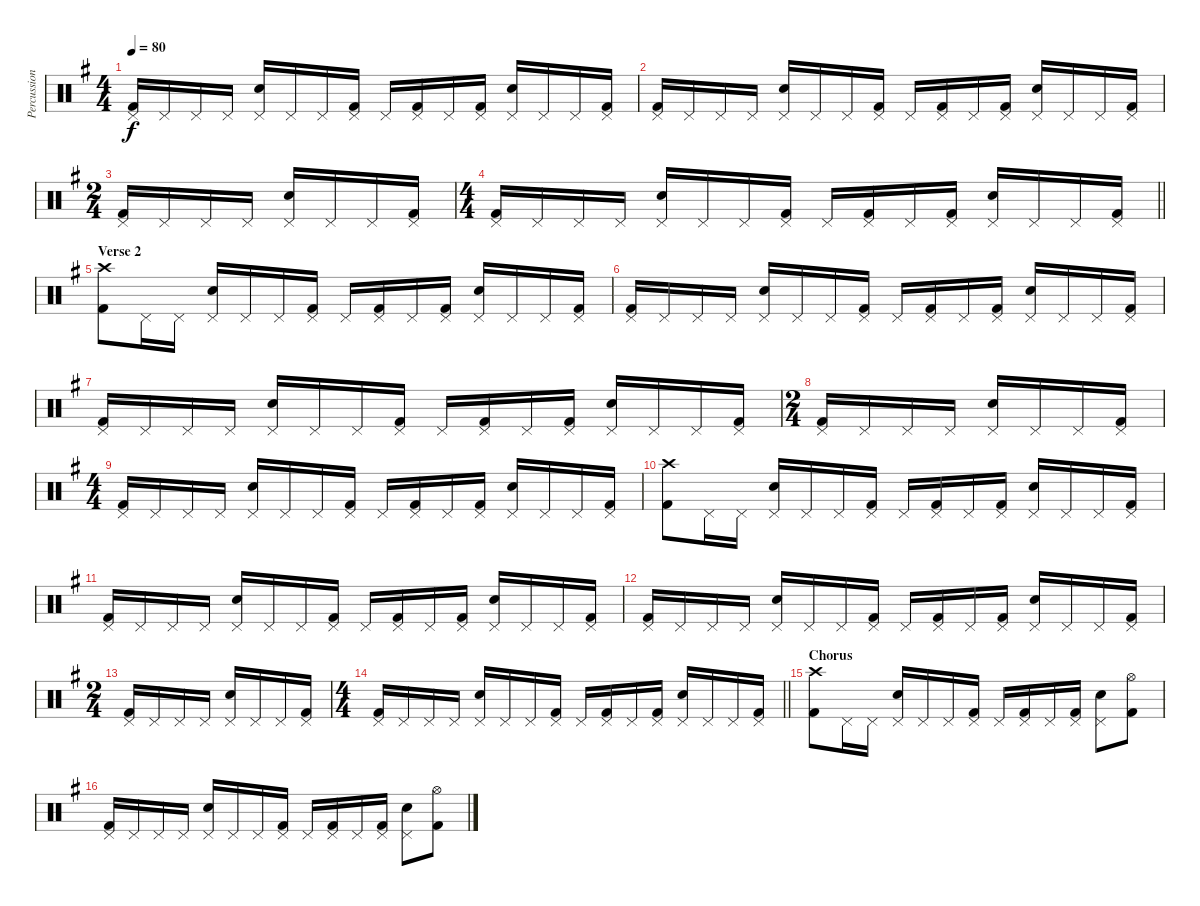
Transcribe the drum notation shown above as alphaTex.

\track ("Percussion" "Percussion") {instrument percussion}
\staff {score}
\articulation defaults
\ts (4 4)
\tempo 80
\clef neutral
\ks g
("Pedal Hi-Hat (hit)" "Kick (hit) 2").16{dy f} "Pedal Hi-Hat (hit)".16 "Pedal Hi-Hat (hit)".16 "Pedal Hi-Hat (hit)".16 ("Pedal Hi-Hat (hit)" "Electric Snare (hit)").16 "Pedal Hi-Hat (hit)".16 "Pedal Hi-Hat (hit)".16 ("Pedal Hi-Hat (hit)" "Kick (hit) 2").16 "Pedal Hi-Hat (hit)".16 ("Pedal Hi-Hat (hit)" "Kick (hit) 2").16 "Pedal Hi-Hat (hit)".16 ("Pedal Hi-Hat (hit)" "Kick (hit) 2").16 ("Pedal Hi-Hat (hit)" "Electric Snare (hit)").16 "Pedal Hi-Hat (hit)".16 "Pedal Hi-Hat (hit)".16 ("Pedal Hi-Hat (hit)" "Kick (hit) 2").16 |
("Pedal Hi-Hat (hit)" "Kick (hit) 2").16 "Pedal Hi-Hat (hit)".16 "Pedal Hi-Hat (hit)".16 "Pedal Hi-Hat (hit)".16 ("Pedal Hi-Hat (hit)" "Electric Snare (hit)").16 "Pedal Hi-Hat (hit)".16 "Pedal Hi-Hat (hit)".16 ("Pedal Hi-Hat (hit)" "Kick (hit) 2").16 "Pedal Hi-Hat (hit)".16 ("Pedal Hi-Hat (hit)" "Kick (hit) 2").16 "Pedal Hi-Hat (hit)".16 ("Pedal Hi-Hat (hit)" "Kick (hit) 2").16 ("Pedal Hi-Hat (hit)" "Electric Snare (hit)").16 "Pedal Hi-Hat (hit)".16 "Pedal Hi-Hat (hit)".16 ("Pedal Hi-Hat (hit)" "Kick (hit) 2").16 |
\ts (2 4)
("Pedal Hi-Hat (hit)" "Kick (hit) 2").16 "Pedal Hi-Hat (hit)".16 "Pedal Hi-Hat (hit)".16 "Pedal Hi-Hat (hit)".16 ("Pedal Hi-Hat (hit)" "Electric Snare (hit)").16 "Pedal Hi-Hat (hit)".16 "Pedal Hi-Hat (hit)".16 ("Pedal Hi-Hat (hit)" "Kick (hit) 2").16 |
\ts (4 4)
\barLineRight lightlight
("Pedal Hi-Hat (hit)" "Kick (hit) 2").16 "Pedal Hi-Hat (hit)".16 "Pedal Hi-Hat (hit)".16 "Pedal Hi-Hat (hit)".16 ("Pedal Hi-Hat (hit)" "Electric Snare (hit)").16 "Pedal Hi-Hat (hit)".16 "Pedal Hi-Hat (hit)".16 ("Pedal Hi-Hat (hit)" "Kick (hit) 2").16 "Pedal Hi-Hat (hit)".16 ("Pedal Hi-Hat (hit)" "Kick (hit) 2").16 "Pedal Hi-Hat (hit)".16 ("Pedal Hi-Hat (hit)" "Kick (hit) 2").16 ("Pedal Hi-Hat (hit)" "Electric Snare (hit)").16 "Pedal Hi-Hat (hit)".16 "Pedal Hi-Hat (hit)".16 ("Pedal Hi-Hat (hit)" "Kick (hit) 2").16 |
\section ("" "Verse 2")
("Crash high (hit)" "Kick (hit) 2").8 "Pedal Hi-Hat (hit)".16 "Pedal Hi-Hat (hit)".16 ("Pedal Hi-Hat (hit)" "Electric Snare (hit)").16 "Pedal Hi-Hat (hit)".16 "Pedal Hi-Hat (hit)".16 ("Pedal Hi-Hat (hit)" "Kick (hit) 2").16 "Pedal Hi-Hat (hit)".16 ("Pedal Hi-Hat (hit)" "Kick (hit) 2").16 "Pedal Hi-Hat (hit)".16 ("Pedal Hi-Hat (hit)" "Kick (hit) 2").16 ("Pedal Hi-Hat (hit)" "Electric Snare (hit)").16 "Pedal Hi-Hat (hit)".16 "Pedal Hi-Hat (hit)".16 ("Pedal Hi-Hat (hit)" "Kick (hit) 2").16 |
("Pedal Hi-Hat (hit)" "Kick (hit) 2").16 "Pedal Hi-Hat (hit)".16 "Pedal Hi-Hat (hit)".16 "Pedal Hi-Hat (hit)".16 ("Pedal Hi-Hat (hit)" "Electric Snare (hit)").16 "Pedal Hi-Hat (hit)".16 "Pedal Hi-Hat (hit)".16 ("Pedal Hi-Hat (hit)" "Kick (hit) 2").16 "Pedal Hi-Hat (hit)".16 ("Pedal Hi-Hat (hit)" "Kick (hit) 2").16 "Pedal Hi-Hat (hit)".16 ("Pedal Hi-Hat (hit)" "Kick (hit) 2").16 ("Pedal Hi-Hat (hit)" "Electric Snare (hit)").16 "Pedal Hi-Hat (hit)".16 "Pedal Hi-Hat (hit)".16 ("Pedal Hi-Hat (hit)" "Kick (hit) 2").16 |
("Pedal Hi-Hat (hit)" "Kick (hit) 2").16 "Pedal Hi-Hat (hit)".16 "Pedal Hi-Hat (hit)".16 "Pedal Hi-Hat (hit)".16 ("Pedal Hi-Hat (hit)" "Electric Snare (hit)").16 "Pedal Hi-Hat (hit)".16 "Pedal Hi-Hat (hit)".16 ("Pedal Hi-Hat (hit)" "Kick (hit) 2").16 "Pedal Hi-Hat (hit)".16 ("Pedal Hi-Hat (hit)" "Kick (hit) 2").16 "Pedal Hi-Hat (hit)".16 ("Pedal Hi-Hat (hit)" "Kick (hit) 2").16 ("Pedal Hi-Hat (hit)" "Electric Snare (hit)").16 "Pedal Hi-Hat (hit)".16 "Pedal Hi-Hat (hit)".16 ("Pedal Hi-Hat (hit)" "Kick (hit) 2").16 |
\ts (2 4)
("Pedal Hi-Hat (hit)" "Kick (hit) 2").16 "Pedal Hi-Hat (hit)".16 "Pedal Hi-Hat (hit)".16 "Pedal Hi-Hat (hit)".16 ("Pedal Hi-Hat (hit)" "Electric Snare (hit)").16 "Pedal Hi-Hat (hit)".16 "Pedal Hi-Hat (hit)".16 ("Pedal Hi-Hat (hit)" "Kick (hit) 2").16 |
\ts (4 4)
("Pedal Hi-Hat (hit)" "Kick (hit) 2").16 "Pedal Hi-Hat (hit)".16 "Pedal Hi-Hat (hit)".16 "Pedal Hi-Hat (hit)".16 ("Pedal Hi-Hat (hit)" "Electric Snare (hit)").16 "Pedal Hi-Hat (hit)".16 "Pedal Hi-Hat (hit)".16 ("Pedal Hi-Hat (hit)" "Kick (hit) 2").16 "Pedal Hi-Hat (hit)".16 ("Pedal Hi-Hat (hit)" "Kick (hit) 2").16 "Pedal Hi-Hat (hit)".16 ("Pedal Hi-Hat (hit)" "Kick (hit) 2").16 ("Pedal Hi-Hat (hit)" "Electric Snare (hit)").16 "Pedal Hi-Hat (hit)".16 "Pedal Hi-Hat (hit)".16 ("Pedal Hi-Hat (hit)" "Kick (hit) 2").16 |
("Crash high (hit)" "Kick (hit) 2").8 "Pedal Hi-Hat (hit)".16 "Pedal Hi-Hat (hit)".16 ("Pedal Hi-Hat (hit)" "Electric Snare (hit)").16 "Pedal Hi-Hat (hit)".16 "Pedal Hi-Hat (hit)".16 ("Pedal Hi-Hat (hit)" "Kick (hit) 2").16 "Pedal Hi-Hat (hit)".16 ("Pedal Hi-Hat (hit)" "Kick (hit) 2").16 "Pedal Hi-Hat (hit)".16 ("Pedal Hi-Hat (hit)" "Kick (hit) 2").16 ("Pedal Hi-Hat (hit)" "Electric Snare (hit)").16 "Pedal Hi-Hat (hit)".16 "Pedal Hi-Hat (hit)".16 ("Pedal Hi-Hat (hit)" "Kick (hit) 2").16 |
("Pedal Hi-Hat (hit)" "Kick (hit) 2").16 "Pedal Hi-Hat (hit)".16 "Pedal Hi-Hat (hit)".16 "Pedal Hi-Hat (hit)".16 ("Pedal Hi-Hat (hit)" "Electric Snare (hit)").16 "Pedal Hi-Hat (hit)".16 "Pedal Hi-Hat (hit)".16 ("Pedal Hi-Hat (hit)" "Kick (hit) 2").16 "Pedal Hi-Hat (hit)".16 ("Pedal Hi-Hat (hit)" "Kick (hit) 2").16 "Pedal Hi-Hat (hit)".16 ("Pedal Hi-Hat (hit)" "Kick (hit) 2").16 ("Pedal Hi-Hat (hit)" "Electric Snare (hit)").16 "Pedal Hi-Hat (hit)".16 "Pedal Hi-Hat (hit)".16 ("Pedal Hi-Hat (hit)" "Kick (hit) 2").16 |
("Pedal Hi-Hat (hit)" "Kick (hit) 2").16 "Pedal Hi-Hat (hit)".16 "Pedal Hi-Hat (hit)".16 "Pedal Hi-Hat (hit)".16 ("Pedal Hi-Hat (hit)" "Electric Snare (hit)").16 "Pedal Hi-Hat (hit)".16 "Pedal Hi-Hat (hit)".16 ("Pedal Hi-Hat (hit)" "Kick (hit) 2").16 "Pedal Hi-Hat (hit)".16 ("Pedal Hi-Hat (hit)" "Kick (hit) 2").16 "Pedal Hi-Hat (hit)".16 ("Pedal Hi-Hat (hit)" "Kick (hit) 2").16 ("Pedal Hi-Hat (hit)" "Electric Snare (hit)").16 "Pedal Hi-Hat (hit)".16 "Pedal Hi-Hat (hit)".16 ("Pedal Hi-Hat (hit)" "Kick (hit) 2").16 |
\ts (2 4)
("Pedal Hi-Hat (hit)" "Kick (hit) 2").16 "Pedal Hi-Hat (hit)".16 "Pedal Hi-Hat (hit)".16 "Pedal Hi-Hat (hit)".16 ("Pedal Hi-Hat (hit)" "Electric Snare (hit)").16 "Pedal Hi-Hat (hit)".16 "Pedal Hi-Hat (hit)".16 ("Pedal Hi-Hat (hit)" "Kick (hit) 2").16 |
\ts (4 4)
\barLineRight lightlight
("Pedal Hi-Hat (hit)" "Kick (hit) 2").16 "Pedal Hi-Hat (hit)".16 "Pedal Hi-Hat (hit)".16 "Pedal Hi-Hat (hit)".16 ("Pedal Hi-Hat (hit)" "Electric Snare (hit)").16 "Pedal Hi-Hat (hit)".16 "Pedal Hi-Hat (hit)".16 ("Pedal Hi-Hat (hit)" "Kick (hit) 2").16 "Pedal Hi-Hat (hit)".16 ("Pedal Hi-Hat (hit)" "Kick (hit) 2").16 "Pedal Hi-Hat (hit)".16 ("Pedal Hi-Hat (hit)" "Kick (hit) 2").16 ("Pedal Hi-Hat (hit)" "Electric Snare (hit)").16 "Pedal Hi-Hat (hit)".16 "Pedal Hi-Hat (hit)".16 ("Pedal Hi-Hat (hit)" "Kick (hit) 2").16 |
\section ("" "Chorus")
("Crash high (hit)" "Kick (hit) 2").8 "Pedal Hi-Hat (hit)".16 "Pedal Hi-Hat (hit)".16 ("Pedal Hi-Hat (hit)" "Electric Snare (hit)").16 "Pedal Hi-Hat (hit)".16 "Pedal Hi-Hat (hit)".16 ("Pedal Hi-Hat (hit)" "Kick (hit) 2").16 "Pedal Hi-Hat (hit)".16 ("Pedal Hi-Hat (hit)" "Kick (hit) 2").16 "Pedal Hi-Hat (hit)".16 ("Pedal Hi-Hat (hit)" "Kick (hit) 2").16 ("Pedal Hi-Hat (hit)" "Electric Snare (hit)").8 ("Hi-Hat (open)" "Kick (hit) 2").8 |
("Pedal Hi-Hat (hit)" "Kick (hit) 2").16 "Pedal Hi-Hat (hit)".16 "Pedal Hi-Hat (hit)".16 "Pedal Hi-Hat (hit)".16 ("Pedal Hi-Hat (hit)" "Electric Snare (hit)").16 "Pedal Hi-Hat (hit)".16 "Pedal Hi-Hat (hit)".16 ("Pedal Hi-Hat (hit)" "Kick (hit) 2").16 "Pedal Hi-Hat (hit)".16 ("Pedal Hi-Hat (hit)" "Kick (hit) 2").16 "Pedal Hi-Hat (hit)".16 ("Pedal Hi-Hat (hit)" "Kick (hit) 2").16 ("Pedal Hi-Hat (hit)" "Electric Snare (hit)").8 ("Hi-Hat (open)" "Kick (hit) 2").8
